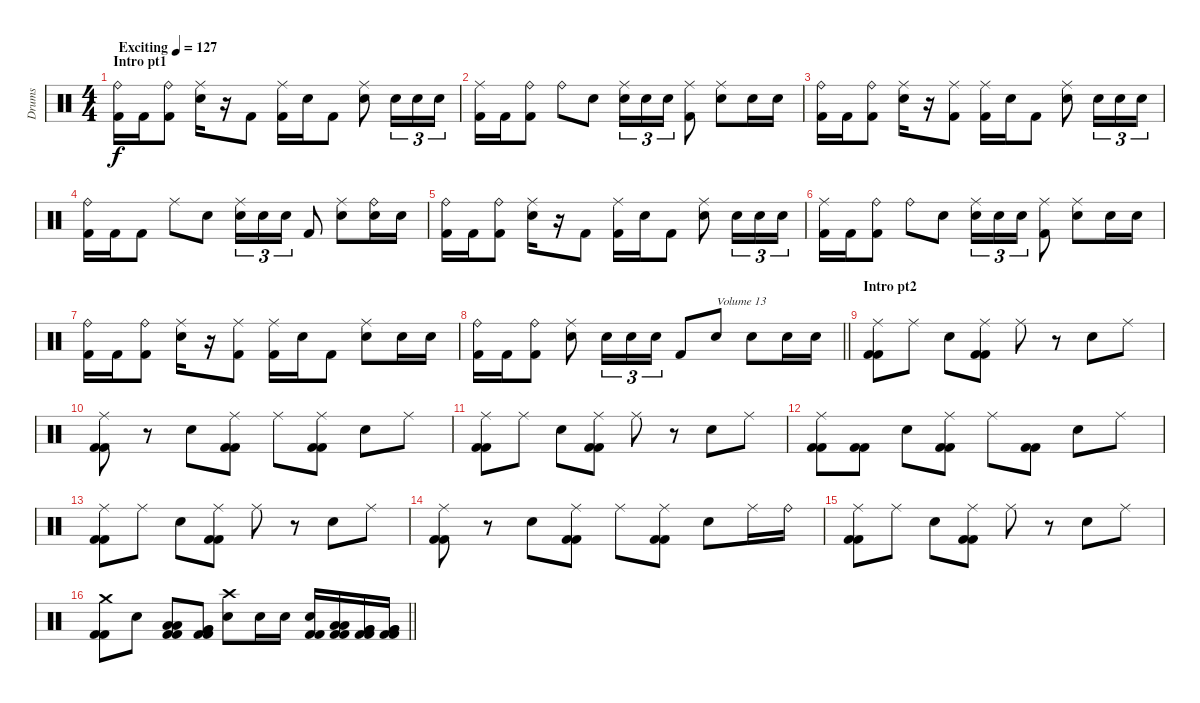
\track ("Drums" "Drums") {instrument percussion}
\staff {score}
\articulation defaults
\ts (4 4)
\section ("" "Intro pt1")
\tempo (127 "Exciting")
\clef neutral
\ks c
("Ride (bell)" "Kick (hit) 2").16{dy f} "Kick (hit) 2".16 ("Ride (bell)" "Kick (hit) 2").8 ("Ride (middle)" "Snare (hit) 2").16 r.16 "Kick (hit) 2".8 ("Ride (middle)" "Kick (hit) 2").16 "Snare (hit) 2".16 "Kick (hit) 2".8 ("Ride (middle)" "Snare (hit) 2").8 "Snare (hit) 2".16{tu (3 2)} "Snare (hit) 2".16{tu (3 2)} "Snare (hit) 2".16{tu (3 2)} |
("Ride (middle)" "Kick (hit) 2").16 "Kick (hit) 2".16 ("Ride (bell)" "Kick (hit) 2").8 "Ride (bell)".8 "Snare (hit) 2".8 ("Ride (middle)" "Snare (hit) 2").16{tu (3 2)} "Snare (hit) 2".16{tu (3 2)} "Snare (hit) 2".16{tu (3 2)} ("Ride (middle)" "Kick (hit) 2").8 ("Ride (middle)" "Snare (hit) 2").8 "Snare (hit) 2".16 "Snare (hit) 2".16 |
("Ride (bell)" "Kick (hit) 2").16 "Kick (hit) 2".16 ("Ride (bell)" "Kick (hit) 2").8 ("Ride (middle)" "Snare (hit) 2").16 r.16 ("Ride (middle)" "Kick (hit) 2").8 ("Ride (middle)" "Kick (hit) 2").16 "Snare (hit) 2".16 "Kick (hit) 2".8 ("Ride (middle)" "Snare (hit) 2").8 "Snare (hit) 2".16{tu (3 2)} "Snare (hit) 2".16{tu (3 2)} "Snare (hit) 2".16{tu (3 2)} |
("Ride (bell)" "Kick (hit) 2").16 "Kick (hit) 2".16 "Kick (hit) 2".8 "Ride (middle)".8 "Snare (hit) 2".8 ("Ride (middle)" "Snare (hit) 2").16{tu (3 2)} "Snare (hit) 2".16{tu (3 2)} "Snare (hit) 2".16{tu (3 2)} "Kick (hit) 2".8 ("Ride (middle)" "Snare (hit) 2").8 ("Ride (bell)" "Snare (hit) 2").16 "Snare (hit) 2".16 |
("Ride (bell)" "Kick (hit) 2").16 "Kick (hit) 2".16 ("Ride (bell)" "Kick (hit) 2").8 ("Ride (middle)" "Snare (hit) 2").16 r.16 "Kick (hit) 2".8 ("Ride (middle)" "Kick (hit) 2").16 "Snare (hit) 2".16 "Kick (hit) 2".8 ("Ride (middle)" "Snare (hit) 2").8 "Snare (hit) 2".16{tu (3 2)} "Snare (hit) 2".16{tu (3 2)} "Snare (hit) 2".16{tu (3 2)} |
("Ride (middle)" "Kick (hit) 2").16 "Kick (hit) 2".16 ("Ride (bell)" "Kick (hit) 2").8 "Ride (bell)".8 "Snare (hit) 2".8 ("Ride (middle)" "Snare (hit) 2").16{tu (3 2)} "Snare (hit) 2".16{tu (3 2)} "Snare (hit) 2".16{tu (3 2)} ("Ride (middle)" "Kick (hit) 2").8 ("Ride (middle)" "Snare (hit) 2").8 "Snare (hit) 2".16 "Snare (hit) 2".16 |
("Ride (bell)" "Kick (hit) 2").16 "Kick (hit) 2".16 ("Ride (bell)" "Kick (hit) 2").8 ("Ride (middle)" "Snare (hit) 2").16 r.16 ("Ride (middle)" "Kick (hit) 2").8 ("Ride (middle)" "Kick (hit) 2").16 "Snare (hit) 2".16 "Kick (hit) 2".8 ("Ride (middle)" "Snare (hit) 2").8 "Snare (hit) 2".16 "Snare (hit) 2".16 |
\barLineRight lightlight
("Ride (bell)" "Kick (hit) 2").16 "Kick (hit) 2".16 ("Ride (bell)" "Kick (hit) 2").8 ("Ride (middle)" "Snare (hit) 2").8 "Snare (hit) 2".16{tu (3 2)} "Snare (hit) 2".16{tu (3 2)} "Snare (hit) 2".16{tu (3 2)} "Kick (hit) 2".8 "Electric Snare (hit)".8{txt "Volume 13" volume 13} "Electric Snare (hit)".8 "Electric Snare (hit)".16 "Electric Snare (hit)".16 |
\section ("" "Intro pt2")
("Ride (middle)" "Kick (hit) 2" "Kick (hit) 2").8 "Ride (middle)".8 "Electric Snare (hit)".8 ("Ride (middle)" "Kick (hit) 2" "Kick (hit) 2").8 "Ride (middle)".8 r.8 "Electric Snare (hit)".8 "Ride (middle)".8 |
("Ride (middle)" "Kick (hit) 2" "Kick (hit) 2").8 r.8 "Electric Snare (hit)".8 ("Ride (middle)" "Kick (hit) 2" "Kick (hit) 2").8 "Ride (middle)".8 ("Ride (middle)" "Kick (hit) 2" "Kick (hit) 2").8 "Electric Snare (hit)".8 "Ride (middle)".8 |
("Ride (middle)" "Kick (hit) 2" "Kick (hit) 2").8 "Ride (middle)".8 "Electric Snare (hit)".8 ("Ride (middle)" "Kick (hit) 2" "Kick (hit) 2").8 "Ride (middle)".8 r.8 "Electric Snare (hit)".8 "Ride (middle)".8 |
("Ride (middle)" "Kick (hit) 2" "Kick (hit) 2").8 ("Kick (hit) 2" "Kick (hit) 2").8 "Electric Snare (hit)".8 ("Ride (middle)" "Kick (hit) 2" "Kick (hit) 2").8 "Ride (middle)".8 ("Kick (hit) 2" "Kick (hit) 2").8 "Electric Snare (hit)".8 "Ride (middle)".8 |
("Ride (middle)" "Kick (hit) 2" "Kick (hit) 2").8 "Ride (middle)".8 "Electric Snare (hit)".8 ("Ride (middle)" "Kick (hit) 2" "Kick (hit) 2").8 "Ride (middle)".8 r.8 "Electric Snare (hit)".8 "Ride (middle)".8 |
("Ride (middle)" "Kick (hit) 2" "Kick (hit) 2").8 r.8 "Electric Snare (hit)".8 ("Ride (middle)" "Kick (hit) 2" "Kick (hit) 2").8 "Ride (middle)".8 ("Ride (middle)" "Kick (hit) 2" "Kick (hit) 2").8 "Electric Snare (hit)".8 "Ride (middle)".16 "Ride (bell)".16 |
("Ride (middle)" "Kick (hit) 2" "Kick (hit) 2").8 "Ride (middle)".8 "Electric Snare (hit)".8 ("Ride (middle)" "Kick (hit) 2" "Kick (hit) 2").8 "Ride (middle)".8 r.8 "Electric Snare (hit)".8 "Ride (middle)".8 |
\barLineRight lightlight
("Crash medium (hit)" "Kick (hit) 2" "Kick (hit) 2").8 "Electric Snare (hit)".8 ("Low Tom (hit)" "Low Tom (hit)" "Kick (hit) 2" "Kick (hit) 2").8 ("Very Low Tom (hit)" "Very Low Tom (hit)" "Kick (hit) 2" "Kick (hit) 2").8 ("Crash high (hit)" "Electric Snare (hit)").8 "Electric Snare (hit)".16 "Electric Snare (hit)".16 ("Electric Snare (hit)" "Kick (hit) 2" "Kick (hit) 2").16 ("Low Tom (hit)" "Low Tom (hit)" "Kick (hit) 2" "Kick (hit) 2").16 ("Very Low Tom (hit)" "Very Low Tom (hit)" "Kick (hit) 2" "Kick (hit) 2").16 ("Very Low Tom (hit)" "Very Low Tom (hit)" "Kick (hit) 2" "Kick (hit) 2").16
